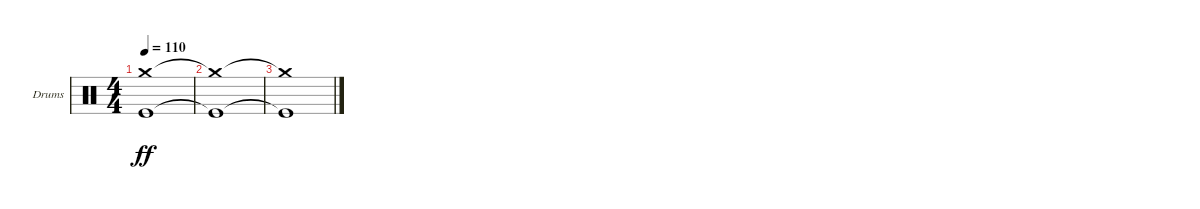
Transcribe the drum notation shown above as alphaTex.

\bracketExtendMode groupsimilarinstruments
\firstSystemTrackNameOrientation horizontal
\otherSystemsTrackNameOrientation horizontal
\track ("Drum Kit" "Drums") {instrument percussion}
\staff {score}
\articulation defaults
\ts (4 4)
\tempo 110
\clef neutral
\ks c
("Kick (hit)"{t} "Crash medium (hit)"{t}).1{dy ff} |
("Kick (hit)"{t} "Crash medium (hit)"{t}).1 |
("Kick (hit)"{t} "Crash medium (hit)"{t}).1
